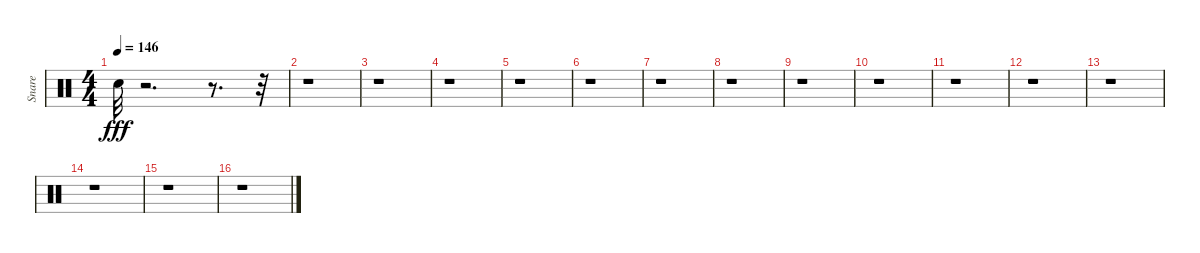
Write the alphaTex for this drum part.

\track ("Snare" "Snare") {instrument percussion}
\staff {score}
\articulation defaults
\ts (4 4)
\tempo 146
\clef neutral
\ks c "Electric Snare (hit)".32{dy fff volume 11}
r.2{d} r.8{d} r.32 |
r.1 |
r.1 |
r.1 |
r.1 |
r.1 |
r.1 |
r.1 |
r.1 |
r.1 |
r.1 |
r.1 |
r.1 |
r.1 |
r.1 |
r.1
